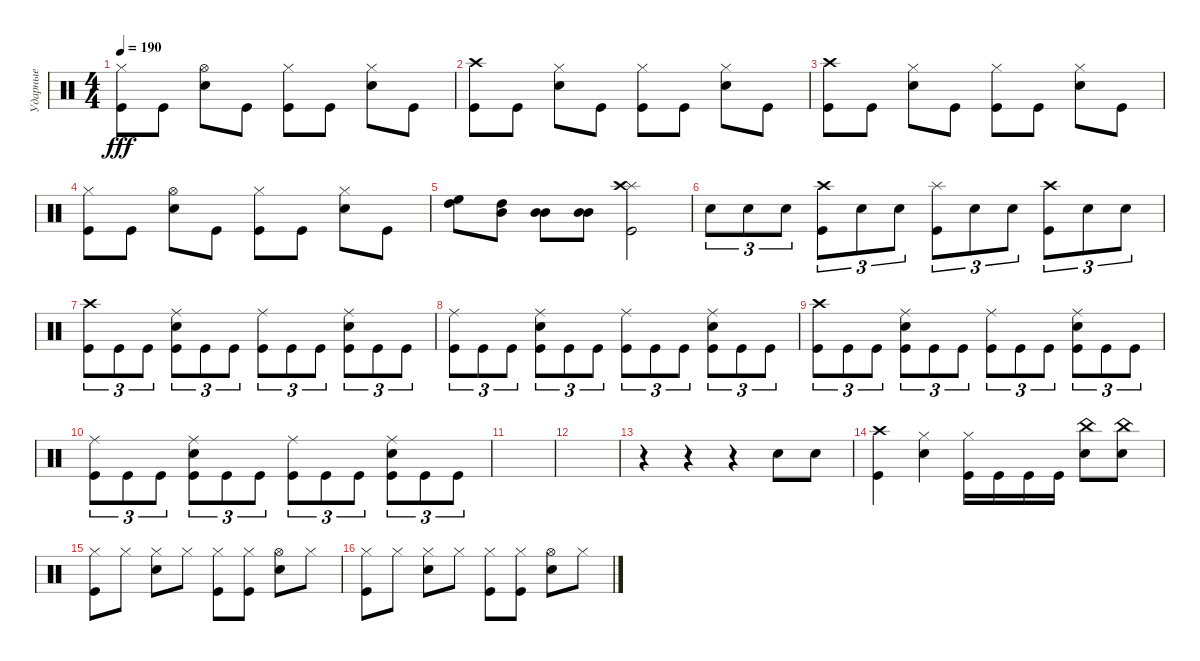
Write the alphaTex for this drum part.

\track ("Ударные" "Ударные") {instrument percussion}
\staff {score}
\articulation defaults
\ts (4 4)
\tempo 190
\clef neutral
\ks c
("Hi-Hat (closed)" "Kick (hit)").8{dy fff} "Kick (hit)".8 ("Snare (hit) 2" "Hi-Hat (open)").8 "Kick (hit)".8 ("Kick (hit)" "Hi-Hat (closed)").8 "Kick (hit)".8 ("Snare (hit) 2" "Hi-Hat (closed)").8 "Kick (hit)".8 |
("Crash high (hit)" "Kick (hit)").8 "Kick (hit)".8 ("Snare (hit) 2" "Hi-Hat (closed)").8 "Kick (hit)".8 ("Kick (hit)" "Hi-Hat (closed)").8 "Kick (hit)".8 ("Snare (hit) 2" "Hi-Hat (closed)").8 "Kick (hit)".8 |
("Crash high (hit)" "Kick (hit)").8 "Kick (hit)".8 ("Snare (hit) 2" "Hi-Hat (closed)").8 "Kick (hit)".8 ("Kick (hit)" "Hi-Hat (closed)").8 "Kick (hit)".8 ("Snare (hit) 2" "Hi-Hat (closed)").8 "Kick (hit)".8 |
("Hi-Hat (closed)" "Kick (hit)").8 "Kick (hit)".8 ("Snare (hit) 2" "Hi-Hat (open)").8 "Kick (hit)".8 ("Kick (hit)" "Hi-Hat (closed)").8 "Kick (hit)".8 ("Snare (hit) 2" "Hi-Hat (closed)").8 "Kick (hit)".8 |
("High Floor Tom (hit)" "High Tom (hit)").8 ("High Tom (hit)" "Mid Tom (hit)").8 ("Mid Tom (hit)" "Mid Tom (hit)").8 ("Mid Tom (hit)" "Mid Tom (hit)").8 ("Kick (hit)" "Splash (hit)" "Crash high (hit)").2 |
"Snare (hit) 2".8{tu (3 2)} "Snare (hit) 2".8{tu (3 2)} "Snare (hit) 2".8{tu (3 2)} ("Crash high (hit)" "Kick (hit)").8{tu (3 2)} "Snare (hit) 2".8{tu (3 2)} "Snare (hit) 2".8{tu (3 2)} ("Splash (hit)" "Kick (hit)").8{tu (3 2)} "Snare (hit) 2".8{tu (3 2)} "Snare (hit) 2".8{tu (3 2)} ("Crash high (hit)" "Kick (hit)").8{tu (3 2)} "Snare (hit) 2".8{tu (3 2)} "Snare (hit) 2".8{tu (3 2)} |
("Kick (hit)" "Crash high (hit)").8{tu (3 2)} "Kick (hit)".8{tu (3 2)} "Kick (hit)".8{tu (3 2)} ("Kick (hit)" "Snare (hit) 2" "Ride (middle)").8{tu (3 2)} "Kick (hit)".8{tu (3 2)} "Kick (hit)".8{tu (3 2)} ("Kick (hit)" "Ride (middle)").8{tu (3 2)} "Kick (hit)".8{tu (3 2)} "Kick (hit)".8{tu (3 2)} ("Kick (hit)" "Snare (hit) 2" "Ride (middle)").8{tu (3 2)} "Kick (hit)".8{tu (3 2)} "Kick (hit)".8{tu (3 2)} |
("Kick (hit)" "Ride (middle)").8{tu (3 2)} "Kick (hit)".8{tu (3 2)} "Kick (hit)".8{tu (3 2)} ("Kick (hit)" "Ride (middle)" "Snare (hit) 2").8{tu (3 2)} "Kick (hit)".8{tu (3 2)} "Kick (hit)".8{tu (3 2)} ("Kick (hit)" "Ride (middle)").8{tu (3 2)} "Kick (hit)".8{tu (3 2)} "Kick (hit)".8{tu (3 2)} ("Kick (hit)" "Snare (hit) 2" "Ride (middle)").8{tu (3 2)} "Kick (hit)".8{tu (3 2)} "Kick (hit)".8{tu (3 2)} |
("Kick (hit)" "Crash high (hit)").8{tu (3 2)} "Kick (hit)".8{tu (3 2)} "Kick (hit)".8{tu (3 2)} ("Kick (hit)" "Snare (hit) 2" "Ride (middle)").8{tu (3 2)} "Kick (hit)".8{tu (3 2)} "Kick (hit)".8{tu (3 2)} ("Kick (hit)" "Ride (middle)").8{tu (3 2)} "Kick (hit)".8{tu (3 2)} "Kick (hit)".8{tu (3 2)} ("Kick (hit)" "Snare (hit) 2" "Ride (middle)").8{tu (3 2)} "Kick (hit)".8{tu (3 2)} "Kick (hit)".8{tu (3 2)} |
("Kick (hit)" "Ride (middle)").8{tu (3 2)} "Kick (hit)".8{tu (3 2)} "Kick (hit)".8{tu (3 2)} ("Kick (hit)" "Ride (middle)" "Snare (hit) 2").8{tu (3 2)} "Kick (hit)".8{tu (3 2)} "Kick (hit)".8{tu (3 2)} ("Kick (hit)" "Ride (middle)").8{tu (3 2)} "Kick (hit)".8{tu (3 2)} "Kick (hit)".8{tu (3 2)} ("Kick (hit)" "Snare (hit) 2" "Ride (middle)").8{tu (3 2)} "Kick (hit)".8{tu (3 2)} "Kick (hit)".8{tu (3 2)} |
|
|
r.4 r.4 r.4 "Snare (hit) 2".8 "Snare (hit) 2".8 |
("Crash high (hit)" "Kick (hit)").4 ("Hi-Hat (closed)" "Snare (hit) 2").4 ("Hi-Hat (closed)" "Kick (hit)").16 "Kick (hit)".16 "Kick (hit)".16 "Kick (hit)".16 ("China (hit)" "Snare (hit) 2").8 ("Snare (hit) 2" "China (hit)").8 |
("Hi-Hat (closed)" "Kick (hit)").8 "Hi-Hat (closed)".8 ("Hi-Hat (closed)" "Snare (hit) 2").8 "Hi-Hat (closed)".8 ("Hi-Hat (closed)" "Kick (hit)").8 ("Hi-Hat (closed)" "Kick (hit)").8 ("Hi-Hat (open)" "Snare (hit) 2").8 "Hi-Hat (closed)".8 |
("Hi-Hat (closed)" "Kick (hit)").8 "Hi-Hat (closed)".8 ("Hi-Hat (closed)" "Snare (hit) 2").8 "Hi-Hat (closed)".8 ("Hi-Hat (closed)" "Kick (hit)").8 ("Hi-Hat (closed)" "Kick (hit)").8 ("Hi-Hat (open)" "Snare (hit) 2").8 "Hi-Hat (closed)".8
